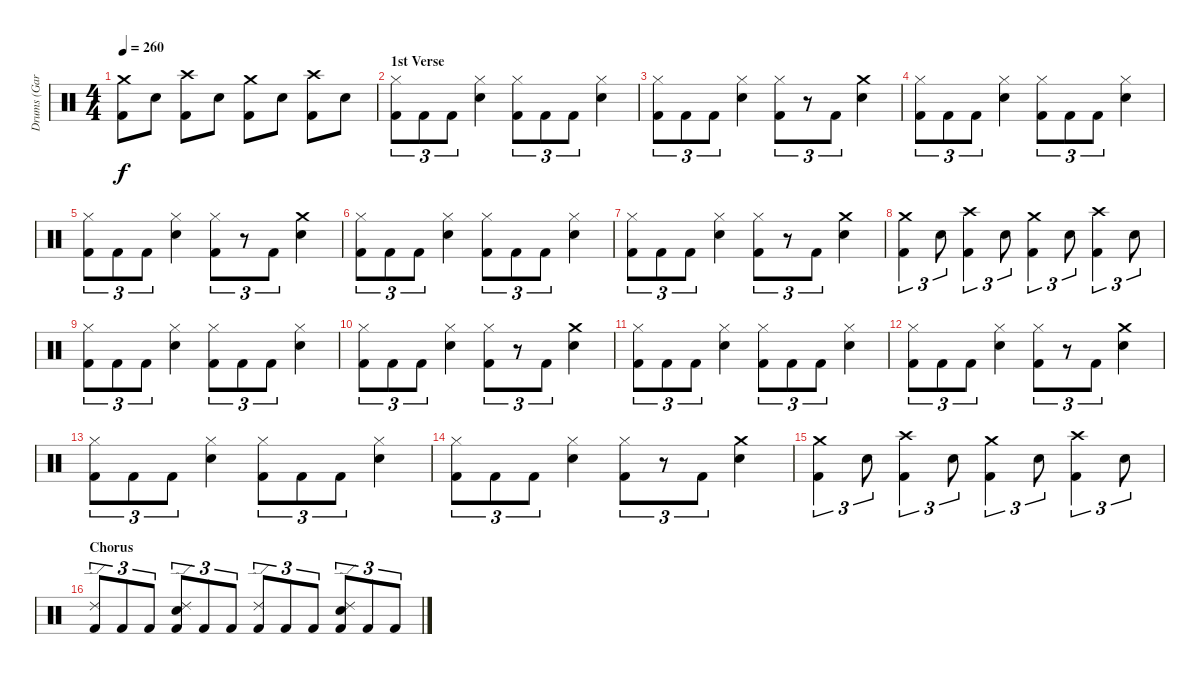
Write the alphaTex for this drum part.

\track ("Drums (Gar Samuelson)" "Drums (Gar") {instrument percussion}
\staff {score}
\articulation defaults
\ts (4 4)
\tempo 260
\clef neutral
\ks c
("Crash medium (hit)" "Kick (hit) 2").8{dy f} "Snare (hit) 2".8 ("Crash high (hit)" "Kick (hit) 2").8 "Snare (hit) 2".8 ("Crash medium (hit)" "Kick (hit) 2").8 "Snare (hit) 2".8 ("Crash high (hit)" "Kick (hit) 2").8 "Snare (hit) 2".8 |
\section ("" "1st Verse")
("Hi-Hat (closed)" "Kick (hit) 2").8{tu (3 2)} "Kick (hit) 2".8{tu (3 2)} "Kick (hit) 2".8{tu (3 2)} ("Hi-Hat (closed)" "Snare (hit) 2").4 ("Hi-Hat (closed)" "Kick (hit) 2").8{tu (3 2)} "Kick (hit) 2".8{tu (3 2)} "Kick (hit) 2".8{tu (3 2)} ("Hi-Hat (closed)" "Snare (hit) 2").4 |
("Hi-Hat (closed)" "Kick (hit) 2").8{tu (3 2)} "Kick (hit) 2".8{tu (3 2)} "Kick (hit) 2".8{tu (3 2)} ("Hi-Hat (closed)" "Snare (hit) 2").4 ("Hi-Hat (closed)" "Kick (hit) 2").8{tu (3 2)} r.8{tu (3 2)} "Kick (hit) 2".8{tu (3 2)} ("Crash medium (hit)" "Snare (hit) 2").4 |
("Hi-Hat (closed)" "Kick (hit) 2").8{tu (3 2)} "Kick (hit) 2".8{tu (3 2)} "Kick (hit) 2".8{tu (3 2)} ("Hi-Hat (closed)" "Snare (hit) 2").4 ("Hi-Hat (closed)" "Kick (hit) 2").8{tu (3 2)} "Kick (hit) 2".8{tu (3 2)} "Kick (hit) 2".8{tu (3 2)} ("Hi-Hat (closed)" "Snare (hit) 2").4 |
("Hi-Hat (closed)" "Kick (hit) 2").8{tu (3 2)} "Kick (hit) 2".8{tu (3 2)} "Kick (hit) 2".8{tu (3 2)} ("Hi-Hat (closed)" "Snare (hit) 2").4 ("Hi-Hat (closed)" "Kick (hit) 2").8{tu (3 2)} r.8{tu (3 2)} "Kick (hit) 2".8{tu (3 2)} ("Crash medium (hit)" "Snare (hit) 2").4 |
("Hi-Hat (closed)" "Kick (hit) 2").8{tu (3 2)} "Kick (hit) 2".8{tu (3 2)} "Kick (hit) 2".8{tu (3 2)} ("Hi-Hat (closed)" "Snare (hit) 2").4 ("Hi-Hat (closed)" "Kick (hit) 2").8{tu (3 2)} "Kick (hit) 2".8{tu (3 2)} "Kick (hit) 2".8{tu (3 2)} ("Hi-Hat (closed)" "Snare (hit) 2").4 |
("Hi-Hat (closed)" "Kick (hit) 2").8{tu (3 2)} "Kick (hit) 2".8{tu (3 2)} "Kick (hit) 2".8{tu (3 2)} ("Hi-Hat (closed)" "Snare (hit) 2").4 ("Hi-Hat (closed)" "Kick (hit) 2").8{tu (3 2)} r.8{tu (3 2)} "Kick (hit) 2".8{tu (3 2)} ("Crash medium (hit)" "Snare (hit) 2").4 |
("Crash medium (hit)" "Kick (hit) 2").4{tu (3 2)} "Snare (hit) 2".8{tu (3 2)} ("Crash high (hit)" "Kick (hit) 2").4{tu (3 2)} "Snare (hit) 2".8{tu (3 2)} ("Crash medium (hit)" "Kick (hit) 2").4{tu (3 2)} "Snare (hit) 2".8{tu (3 2)} ("Crash high (hit)" "Kick (hit) 2").4{tu (3 2)} "Snare (hit) 2".8{tu (3 2)} |
("Hi-Hat (closed)" "Kick (hit) 2").8{tu (3 2)} "Kick (hit) 2".8{tu (3 2)} "Kick (hit) 2".8{tu (3 2)} ("Hi-Hat (closed)" "Snare (hit) 2").4 ("Hi-Hat (closed)" "Kick (hit) 2").8{tu (3 2)} "Kick (hit) 2".8{tu (3 2)} "Kick (hit) 2".8{tu (3 2)} ("Hi-Hat (closed)" "Snare (hit) 2").4 |
("Hi-Hat (closed)" "Kick (hit) 2").8{tu (3 2)} "Kick (hit) 2".8{tu (3 2)} "Kick (hit) 2".8{tu (3 2)} ("Hi-Hat (closed)" "Snare (hit) 2").4 ("Hi-Hat (closed)" "Kick (hit) 2").8{tu (3 2)} r.8{tu (3 2)} "Kick (hit) 2".8{tu (3 2)} ("Crash medium (hit)" "Snare (hit) 2").4 |
("Hi-Hat (closed)" "Kick (hit) 2").8{tu (3 2)} "Kick (hit) 2".8{tu (3 2)} "Kick (hit) 2".8{tu (3 2)} ("Hi-Hat (closed)" "Snare (hit) 2").4 ("Hi-Hat (closed)" "Kick (hit) 2").8{tu (3 2)} "Kick (hit) 2".8{tu (3 2)} "Kick (hit) 2".8{tu (3 2)} ("Hi-Hat (closed)" "Snare (hit) 2").4 |
("Hi-Hat (closed)" "Kick (hit) 2").8{tu (3 2)} "Kick (hit) 2".8{tu (3 2)} "Kick (hit) 2".8{tu (3 2)} ("Hi-Hat (closed)" "Snare (hit) 2").4 ("Hi-Hat (closed)" "Kick (hit) 2").8{tu (3 2)} r.8{tu (3 2)} "Kick (hit) 2".8{tu (3 2)} ("Crash medium (hit)" "Snare (hit) 2").4 |
("Hi-Hat (closed)" "Kick (hit) 2").8{tu (3 2)} "Kick (hit) 2".8{tu (3 2)} "Kick (hit) 2".8{tu (3 2)} ("Hi-Hat (closed)" "Snare (hit) 2").4 ("Hi-Hat (closed)" "Kick (hit) 2").8{tu (3 2)} "Kick (hit) 2".8{tu (3 2)} "Kick (hit) 2".8{tu (3 2)} ("Hi-Hat (closed)" "Snare (hit) 2").4 |
("Hi-Hat (closed)" "Kick (hit) 2").8{tu (3 2)} "Kick (hit) 2".8{tu (3 2)} "Kick (hit) 2".8{tu (3 2)} ("Hi-Hat (closed)" "Snare (hit) 2").4 ("Hi-Hat (closed)" "Kick (hit) 2").8{tu (3 2)} r.8{tu (3 2)} "Kick (hit) 2".8{tu (3 2)} ("Crash medium (hit)" "Snare (hit) 2").4 |
("Crash medium (hit)" "Kick (hit) 2").4{tu (3 2)} "Snare (hit) 2".8{tu (3 2)} ("Crash high (hit)" "Kick (hit) 2").4{tu (3 2)} "Snare (hit) 2".8{tu (3 2)} ("Crash medium (hit)" "Kick (hit) 2").4{tu (3 2)} "Snare (hit) 2".8{tu (3 2)} ("Crash high (hit)" "Kick (hit) 2").4{tu (3 2)} "Snare (hit) 2".8{tu (3 2)} |
\section ("" "Chorus")
("Ride (edge) 2" "Kick (hit) 2").8{tu (3 2)} "Kick (hit) 2".8{tu (3 2)} "Kick (hit) 2".8{tu (3 2)} ("Ride (edge) 2" "Snare (hit) 2" "Kick (hit) 2").8{tu (3 2)} "Kick (hit) 2".8{tu (3 2)} "Kick (hit) 2".8{tu (3 2)} ("Ride (edge) 2" "Kick (hit) 2").8{tu (3 2)} "Kick (hit) 2".8{tu (3 2)} "Kick (hit) 2".8{tu (3 2)} ("Ride (edge) 2" "Snare (hit) 2" "Kick (hit) 2").8{tu (3 2)} "Kick (hit) 2".8{tu (3 2)} "Kick (hit) 2".8{tu (3 2)}
